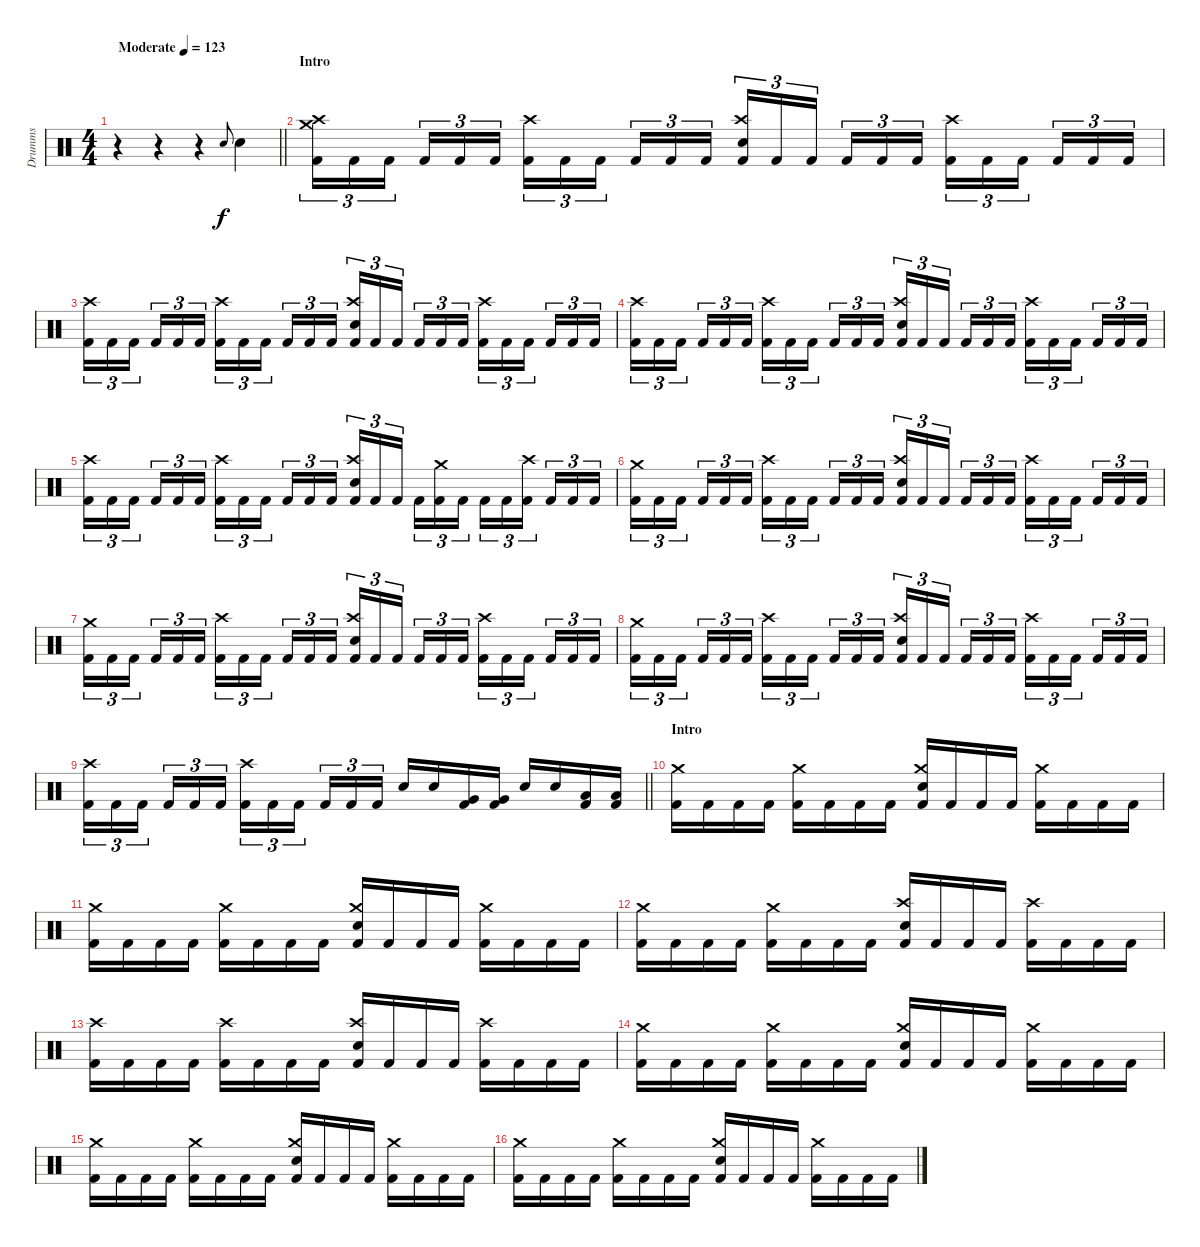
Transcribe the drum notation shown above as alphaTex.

\track ("Drumms" "Drumms") {instrument percussion}
\staff {score}
\articulation defaults
\ts (4 4)
\tempo (123 "Moderate")
\clef neutral
\barLineRight lightlight
\ks c
r.4{dy f} r.4 r.4 "Electric Snare (hit)".8{gr onbeat} "Electric Snare (hit)".4 |
\section ("" "Intro")
\ks aminor
("Crash high (hit)" "Crash medium (hit)" "Kick (hit) 2").16{tu (3 2)} "Kick (hit) 2".16{tu (3 2)} "Kick (hit) 2".16{tu (3 2) beam splitsecondary} "Kick (hit) 2".16{tu (3 2)} "Kick (hit) 2".16{tu (3 2)} "Kick (hit) 2".16{tu (3 2)} ("Crash high (hit)" "Kick (hit) 2").16{tu (3 2)} "Kick (hit) 2".16{tu (3 2)} "Kick (hit) 2".16{tu (3 2) beam splitsecondary} "Kick (hit) 2".16{tu (3 2)} "Kick (hit) 2".16{tu (3 2)} "Kick (hit) 2".16{tu (3 2)} ("Crash high (hit)" "Electric Snare (hit)" "Kick (hit) 2").16{tu (3 2)} "Kick (hit) 2".16{tu (3 2)} "Kick (hit) 2".16{tu (3 2) beam splitsecondary} "Kick (hit) 2".16{tu (3 2)} "Kick (hit) 2".16{tu (3 2)} "Kick (hit) 2".16{tu (3 2)} ("Crash high (hit)" "Kick (hit) 2").16{tu (3 2)} "Kick (hit) 2".16{tu (3 2)} "Kick (hit) 2".16{tu (3 2) beam splitsecondary} "Kick (hit) 2".16{tu (3 2)} "Kick (hit) 2".16{tu (3 2)} "Kick (hit) 2".16{tu (3 2)} |
("Crash high (hit)" "Kick (hit) 2").16{tu (3 2)} "Kick (hit) 2".16{tu (3 2)} "Kick (hit) 2".16{tu (3 2) beam splitsecondary} "Kick (hit) 2".16{tu (3 2)} "Kick (hit) 2".16{tu (3 2)} "Kick (hit) 2".16{tu (3 2)} ("Crash high (hit)" "Kick (hit) 2").16{tu (3 2)} "Kick (hit) 2".16{tu (3 2)} "Kick (hit) 2".16{tu (3 2) beam splitsecondary} "Kick (hit) 2".16{tu (3 2)} "Kick (hit) 2".16{tu (3 2)} "Kick (hit) 2".16{tu (3 2)} ("Crash high (hit)" "Electric Snare (hit)" "Kick (hit) 2").16{tu (3 2)} "Kick (hit) 2".16{tu (3 2)} "Kick (hit) 2".16{tu (3 2) beam splitsecondary} "Kick (hit) 2".16{tu (3 2)} "Kick (hit) 2".16{tu (3 2)} "Kick (hit) 2".16{tu (3 2)} ("Crash high (hit)" "Kick (hit) 2").16{tu (3 2)} "Kick (hit) 2".16{tu (3 2)} "Kick (hit) 2".16{tu (3 2) beam splitsecondary} "Kick (hit) 2".16{tu (3 2)} "Kick (hit) 2".16{tu (3 2)} "Kick (hit) 2".16{tu (3 2)} |
("Crash high (hit)" "Kick (hit) 2").16{tu (3 2)} "Kick (hit) 2".16{tu (3 2)} "Kick (hit) 2".16{tu (3 2) beam splitsecondary} "Kick (hit) 2".16{tu (3 2)} "Kick (hit) 2".16{tu (3 2)} "Kick (hit) 2".16{tu (3 2)} ("Crash high (hit)" "Kick (hit) 2").16{tu (3 2)} "Kick (hit) 2".16{tu (3 2)} "Kick (hit) 2".16{tu (3 2) beam splitsecondary} "Kick (hit) 2".16{tu (3 2)} "Kick (hit) 2".16{tu (3 2)} "Kick (hit) 2".16{tu (3 2)} ("Crash high (hit)" "Electric Snare (hit)" "Kick (hit) 2").16{tu (3 2)} "Kick (hit) 2".16{tu (3 2)} "Kick (hit) 2".16{tu (3 2) beam splitsecondary} "Kick (hit) 2".16{tu (3 2)} "Kick (hit) 2".16{tu (3 2)} "Kick (hit) 2".16{tu (3 2)} ("Crash high (hit)" "Kick (hit) 2").16{tu (3 2)} "Kick (hit) 2".16{tu (3 2)} "Kick (hit) 2".16{tu (3 2) beam splitsecondary} "Kick (hit) 2".16{tu (3 2)} "Kick (hit) 2".16{tu (3 2)} "Kick (hit) 2".16{tu (3 2)} |
("Crash high (hit)" "Kick (hit) 2").16{tu (3 2)} "Kick (hit) 2".16{tu (3 2)} "Kick (hit) 2".16{tu (3 2) beam splitsecondary} "Kick (hit) 2".16{tu (3 2)} "Kick (hit) 2".16{tu (3 2)} "Kick (hit) 2".16{tu (3 2)} ("Crash high (hit)" "Kick (hit) 2").16{tu (3 2)} "Kick (hit) 2".16{tu (3 2)} "Kick (hit) 2".16{tu (3 2) beam splitsecondary} "Kick (hit) 2".16{tu (3 2)} "Kick (hit) 2".16{tu (3 2)} "Kick (hit) 2".16{tu (3 2)} ("Crash high (hit)" "Electric Snare (hit)" "Kick (hit) 2").16{tu (3 2)} "Kick (hit) 2".16{tu (3 2)} "Kick (hit) 2".16{tu (3 2) beam splitsecondary} "Kick (hit) 2".16{tu (3 2)} ("Crash medium (hit)" "Kick (hit) 2").16{tu (3 2)} "Kick (hit) 2".16{tu (3 2)} "Kick (hit) 2".16{tu (3 2)} "Kick (hit) 2".16{tu (3 2)} ("Crash high (hit)" "Kick (hit) 2").16{tu (3 2) beam splitsecondary} "Kick (hit) 2".16{tu (3 2)} "Kick (hit) 2".16{tu (3 2)} "Kick (hit) 2".16{tu (3 2)} |
("Crash medium (hit)" "Kick (hit) 2").16{tu (3 2)} "Kick (hit) 2".16{tu (3 2)} "Kick (hit) 2".16{tu (3 2) beam splitsecondary} "Kick (hit) 2".16{tu (3 2)} "Kick (hit) 2".16{tu (3 2)} "Kick (hit) 2".16{tu (3 2)} ("Crash high (hit)" "Kick (hit) 2").16{tu (3 2)} "Kick (hit) 2".16{tu (3 2)} "Kick (hit) 2".16{tu (3 2) beam splitsecondary} "Kick (hit) 2".16{tu (3 2)} "Kick (hit) 2".16{tu (3 2)} "Kick (hit) 2".16{tu (3 2)} ("Crash high (hit)" "Electric Snare (hit)" "Kick (hit) 2").16{tu (3 2)} "Kick (hit) 2".16{tu (3 2)} "Kick (hit) 2".16{tu (3 2) beam splitsecondary} "Kick (hit) 2".16{tu (3 2)} "Kick (hit) 2".16{tu (3 2)} "Kick (hit) 2".16{tu (3 2)} ("Crash high (hit)" "Kick (hit) 2").16{tu (3 2)} "Kick (hit) 2".16{tu (3 2)} "Kick (hit) 2".16{tu (3 2) beam splitsecondary} "Kick (hit) 2".16{tu (3 2)} "Kick (hit) 2".16{tu (3 2)} "Kick (hit) 2".16{tu (3 2)} |
("Crash medium (hit)" "Kick (hit) 2").16{tu (3 2)} "Kick (hit) 2".16{tu (3 2)} "Kick (hit) 2".16{tu (3 2) beam splitsecondary} "Kick (hit) 2".16{tu (3 2)} "Kick (hit) 2".16{tu (3 2)} "Kick (hit) 2".16{tu (3 2)} ("Crash high (hit)" "Kick (hit) 2").16{tu (3 2)} "Kick (hit) 2".16{tu (3 2)} "Kick (hit) 2".16{tu (3 2) beam splitsecondary} "Kick (hit) 2".16{tu (3 2)} "Kick (hit) 2".16{tu (3 2)} "Kick (hit) 2".16{tu (3 2)} ("Crash high (hit)" "Electric Snare (hit)" "Kick (hit) 2").16{tu (3 2)} "Kick (hit) 2".16{tu (3 2)} "Kick (hit) 2".16{tu (3 2) beam splitsecondary} "Kick (hit) 2".16{tu (3 2)} "Kick (hit) 2".16{tu (3 2)} "Kick (hit) 2".16{tu (3 2)} ("Crash high (hit)" "Kick (hit) 2").16{tu (3 2)} "Kick (hit) 2".16{tu (3 2)} "Kick (hit) 2".16{tu (3 2) beam splitsecondary} "Kick (hit) 2".16{tu (3 2)} "Kick (hit) 2".16{tu (3 2)} "Kick (hit) 2".16{tu (3 2)} |
("Crash medium (hit)" "Kick (hit) 2").16{tu (3 2)} "Kick (hit) 2".16{tu (3 2)} "Kick (hit) 2".16{tu (3 2) beam splitsecondary} "Kick (hit) 2".16{tu (3 2)} "Kick (hit) 2".16{tu (3 2)} "Kick (hit) 2".16{tu (3 2)} ("Crash high (hit)" "Kick (hit) 2").16{tu (3 2)} "Kick (hit) 2".16{tu (3 2)} "Kick (hit) 2".16{tu (3 2) beam splitsecondary} "Kick (hit) 2".16{tu (3 2)} "Kick (hit) 2".16{tu (3 2)} "Kick (hit) 2".16{tu (3 2)} ("Crash high (hit)" "Electric Snare (hit)" "Kick (hit) 2").16{tu (3 2)} "Kick (hit) 2".16{tu (3 2)} "Kick (hit) 2".16{tu (3 2) beam splitsecondary} "Kick (hit) 2".16{tu (3 2)} "Kick (hit) 2".16{tu (3 2)} "Kick (hit) 2".16{tu (3 2)} ("Crash high (hit)" "Kick (hit) 2").16{tu (3 2)} "Kick (hit) 2".16{tu (3 2)} "Kick (hit) 2".16{tu (3 2) beam splitsecondary} "Kick (hit) 2".16{tu (3 2)} "Kick (hit) 2".16{tu (3 2)} "Kick (hit) 2".16{tu (3 2)} |
\barLineRight lightlight
("Crash high (hit)" "Kick (hit) 2").16{tu (3 2)} "Kick (hit) 2".16{tu (3 2)} "Kick (hit) 2".16{tu (3 2) beam splitsecondary} "Kick (hit) 2".16{tu (3 2)} "Kick (hit) 2".16{tu (3 2)} "Kick (hit) 2".16{tu (3 2)} ("Crash high (hit)" "Kick (hit) 2").16{tu (3 2)} "Kick (hit) 2".16{tu (3 2)} "Kick (hit) 2".16{tu (3 2) beam splitsecondary} "Kick (hit) 2".16{tu (3 2)} "Kick (hit) 2".16{tu (3 2)} "Kick (hit) 2".16{tu (3 2)} "Electric Snare (hit)".16 "Electric Snare (hit)".16 ("Very Low Tom (hit)" "Kick (hit) 2").16 ("Very Low Tom (hit)" "Kick (hit) 2").16 "Electric Snare (hit)".16 "Electric Snare (hit)".16 ("Low Floor Tom (hit)" "Kick (hit) 2").16 ("Low Floor Tom (hit)" "Kick (hit) 2").16 |
\section ("" "Intro")
("Crash medium (hit)" "Kick (hit) 2").16 "Kick (hit) 2".16 "Kick (hit) 2".16 "Kick (hit) 2".16 ("Crash medium (hit)" "Kick (hit) 2").16 "Kick (hit) 2".16 "Kick (hit) 2".16 "Kick (hit) 2".16 ("Crash medium (hit)" "Electric Snare (hit)" "Kick (hit) 2").16 "Kick (hit) 2".16 "Kick (hit) 2".16 "Kick (hit) 2".16 ("Crash medium (hit)" "Kick (hit) 2").16 "Kick (hit) 2".16 "Kick (hit) 2".16 "Kick (hit) 2".16 |
("Crash medium (hit)" "Kick (hit) 2").16 "Kick (hit) 2".16 "Kick (hit) 2".16 "Kick (hit) 2".16 ("Crash medium (hit)" "Kick (hit) 2").16 "Kick (hit) 2".16 "Kick (hit) 2".16 "Kick (hit) 2".16 ("Crash medium (hit)" "Electric Snare (hit)" "Kick (hit) 2").16 "Kick (hit) 2".16 "Kick (hit) 2".16 "Kick (hit) 2".16 ("Crash medium (hit)" "Kick (hit) 2").16 "Kick (hit) 2".16 "Kick (hit) 2".16 "Kick (hit) 2".16 |
("Crash medium (hit)" "Kick (hit) 2").16 "Kick (hit) 2".16 "Kick (hit) 2".16 "Kick (hit) 2".16 ("Crash medium (hit)" "Kick (hit) 2").16 "Kick (hit) 2".16 "Kick (hit) 2".16 "Kick (hit) 2".16 ("Crash high (hit)" "Electric Snare (hit)" "Kick (hit) 2").16 "Kick (hit) 2".16 "Kick (hit) 2".16 "Kick (hit) 2".16 ("Crash high (hit)" "Kick (hit) 2").16 "Kick (hit) 2".16 "Kick (hit) 2".16 "Kick (hit) 2".16 |
("Crash high (hit)" "Kick (hit) 2").16 "Kick (hit) 2".16 "Kick (hit) 2".16 "Kick (hit) 2".16 ("Crash high (hit)" "Kick (hit) 2").16 "Kick (hit) 2".16 "Kick (hit) 2".16 "Kick (hit) 2".16 ("Crash high (hit)" "Electric Snare (hit)" "Kick (hit) 2").16 "Kick (hit) 2".16 "Kick (hit) 2".16 "Kick (hit) 2".16 ("Crash high (hit)" "Kick (hit) 2").16 "Kick (hit) 2".16 "Kick (hit) 2".16 "Kick (hit) 2".16 |
("Crash medium (hit)" "Kick (hit) 2").16 "Kick (hit) 2".16 "Kick (hit) 2".16 "Kick (hit) 2".16 ("Crash medium (hit)" "Kick (hit) 2").16 "Kick (hit) 2".16 "Kick (hit) 2".16 "Kick (hit) 2".16 ("Crash medium (hit)" "Electric Snare (hit)" "Kick (hit) 2").16 "Kick (hit) 2".16 "Kick (hit) 2".16 "Kick (hit) 2".16 ("Crash medium (hit)" "Kick (hit) 2").16 "Kick (hit) 2".16 "Kick (hit) 2".16 "Kick (hit) 2".16 |
("Crash medium (hit)" "Kick (hit) 2").16 "Kick (hit) 2".16 "Kick (hit) 2".16 "Kick (hit) 2".16 ("Crash medium (hit)" "Kick (hit) 2").16 "Kick (hit) 2".16 "Kick (hit) 2".16 "Kick (hit) 2".16 ("Crash medium (hit)" "Electric Snare (hit)" "Kick (hit) 2").16 "Kick (hit) 2".16 "Kick (hit) 2".16 "Kick (hit) 2".16 ("Crash medium (hit)" "Kick (hit) 2").16 "Kick (hit) 2".16 "Kick (hit) 2".16 "Kick (hit) 2".16 |
("Crash medium (hit)" "Kick (hit) 2").16 "Kick (hit) 2".16 "Kick (hit) 2".16 "Kick (hit) 2".16 ("Crash medium (hit)" "Kick (hit) 2").16 "Kick (hit) 2".16 "Kick (hit) 2".16 "Kick (hit) 2".16 ("Crash medium (hit)" "Electric Snare (hit)" "Kick (hit) 2").16 "Kick (hit) 2".16 "Kick (hit) 2".16 "Kick (hit) 2".16 ("Crash medium (hit)" "Kick (hit) 2").16 "Kick (hit) 2".16 "Kick (hit) 2".16 "Kick (hit) 2".16
